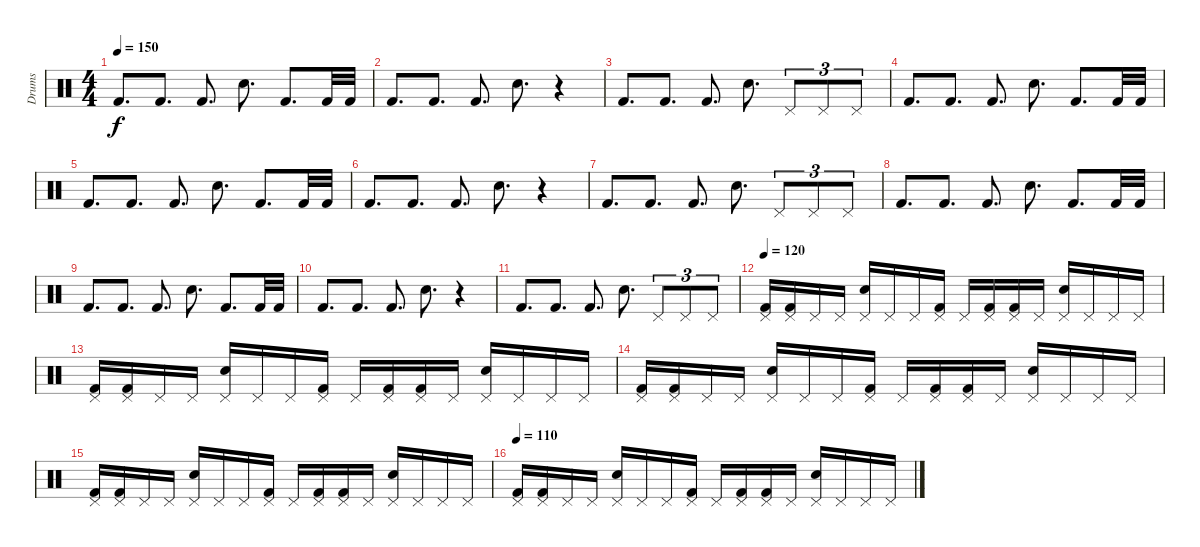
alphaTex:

\track ("Drums" "Drums") {instrument percussion}
\staff {score}
\articulation defaults
\ts (4 4)
\tempo 150
\clef neutral
\ks c "Kick (hit) 2".8{d dy f} "Kick (hit) 2".8{d} "Kick (hit) 2".8{d} "Snare (hit) 2".8{d} "Kick (hit) 2".8{d} "Kick (hit) 2".32 "Kick (hit) 2".32
|
"Kick (hit) 2".8{d} "Kick (hit) 2".8{d} "Kick (hit) 2".8{d} "Snare (hit) 2".8{d} r.4 |
"Kick (hit) 2".8{d} "Kick (hit) 2".8{d} "Kick (hit) 2".8{d} "Snare (hit) 2".8{d} "Pedal Hi-Hat (hit)".8{tu (3 2)} "Pedal Hi-Hat (hit)".8{tu (3 2)} "Pedal Hi-Hat (hit)".8{tu (3 2)} |
"Kick (hit) 2".8{d} "Kick (hit) 2".8{d} "Kick (hit) 2".8{d} "Snare (hit) 2".8{d} "Kick (hit) 2".8{d} "Kick (hit) 2".32 "Kick (hit) 2".32 |
"Kick (hit) 2".8{d} "Kick (hit) 2".8{d} "Kick (hit) 2".8{d} "Snare (hit) 2".8{d} "Kick (hit) 2".8{d} "Kick (hit) 2".32 "Kick (hit) 2".32 |
"Kick (hit) 2".8{d} "Kick (hit) 2".8{d} "Kick (hit) 2".8{d} "Snare (hit) 2".8{d} r.4 |
"Kick (hit) 2".8{d} "Kick (hit) 2".8{d} "Kick (hit) 2".8{d} "Snare (hit) 2".8{d} "Pedal Hi-Hat (hit)".8{tu (3 2)} "Pedal Hi-Hat (hit)".8{tu (3 2)} "Pedal Hi-Hat (hit)".8{tu (3 2)} |
"Kick (hit) 2".8{d} "Kick (hit) 2".8{d} "Kick (hit) 2".8{d} "Snare (hit) 2".8{d} "Kick (hit) 2".8{d} "Kick (hit) 2".32 "Kick (hit) 2".32 |
"Kick (hit) 2".8{d} "Kick (hit) 2".8{d} "Kick (hit) 2".8{d} "Snare (hit) 2".8{d} "Kick (hit) 2".8{d} "Kick (hit) 2".32 "Kick (hit) 2".32 |
"Kick (hit) 2".8{d} "Kick (hit) 2".8{d} "Kick (hit) 2".8{d} "Snare (hit) 2".8{d} r.4 |
"Kick (hit) 2".8{d} "Kick (hit) 2".8{d} "Kick (hit) 2".8{d} "Snare (hit) 2".8{d} "Pedal Hi-Hat (hit)".8{tu (3 2)} "Pedal Hi-Hat (hit)".8{tu (3 2)} "Pedal Hi-Hat (hit)".8{tu (3 2)} |
\tempo 120
("Pedal Hi-Hat (hit)" "Kick (hit) 2").16 ("Pedal Hi-Hat (hit)" "Kick (hit) 2").16 "Pedal Hi-Hat (hit)".16 "Pedal Hi-Hat (hit)".16 ("Pedal Hi-Hat (hit)" "Snare (hit) 2").16 "Pedal Hi-Hat (hit)".16 "Pedal Hi-Hat (hit)".16 ("Pedal Hi-Hat (hit)" "Kick (hit) 2").16 "Pedal Hi-Hat (hit)".16 ("Pedal Hi-Hat (hit)" "Kick (hit) 2").16 ("Pedal Hi-Hat (hit)" "Kick (hit) 2").16 "Pedal Hi-Hat (hit)".16 ("Pedal Hi-Hat (hit)" "Snare (hit) 2").16 "Pedal Hi-Hat (hit)".16 "Pedal Hi-Hat (hit)".16 "Pedal Hi-Hat (hit)".16 |
("Pedal Hi-Hat (hit)" "Kick (hit) 2").16 ("Pedal Hi-Hat (hit)" "Kick (hit) 2").16 "Pedal Hi-Hat (hit)".16 "Pedal Hi-Hat (hit)".16 ("Pedal Hi-Hat (hit)" "Snare (hit) 2").16 "Pedal Hi-Hat (hit)".16 "Pedal Hi-Hat (hit)".16 ("Pedal Hi-Hat (hit)" "Kick (hit) 2").16 "Pedal Hi-Hat (hit)".16 ("Pedal Hi-Hat (hit)" "Kick (hit) 2").16 ("Pedal Hi-Hat (hit)" "Kick (hit) 2").16 "Pedal Hi-Hat (hit)".16 ("Pedal Hi-Hat (hit)" "Snare (hit) 2").16 "Pedal Hi-Hat (hit)".16 "Pedal Hi-Hat (hit)".16 "Pedal Hi-Hat (hit)".16 |
("Pedal Hi-Hat (hit)" "Kick (hit) 2").16 ("Pedal Hi-Hat (hit)" "Kick (hit) 2").16 "Pedal Hi-Hat (hit)".16 "Pedal Hi-Hat (hit)".16 ("Pedal Hi-Hat (hit)" "Snare (hit) 2").16 "Pedal Hi-Hat (hit)".16 "Pedal Hi-Hat (hit)".16 ("Pedal Hi-Hat (hit)" "Kick (hit) 2").16 "Pedal Hi-Hat (hit)".16 ("Pedal Hi-Hat (hit)" "Kick (hit) 2").16 ("Pedal Hi-Hat (hit)" "Kick (hit) 2").16 "Pedal Hi-Hat (hit)".16 ("Pedal Hi-Hat (hit)" "Snare (hit) 2").16 "Pedal Hi-Hat (hit)".16 "Pedal Hi-Hat (hit)".16 "Pedal Hi-Hat (hit)".16 |
("Pedal Hi-Hat (hit)" "Kick (hit) 2").16 ("Pedal Hi-Hat (hit)" "Kick (hit) 2").16 "Pedal Hi-Hat (hit)".16 "Pedal Hi-Hat (hit)".16 ("Pedal Hi-Hat (hit)" "Snare (hit) 2").16 "Pedal Hi-Hat (hit)".16 "Pedal Hi-Hat (hit)".16 ("Pedal Hi-Hat (hit)" "Kick (hit) 2").16 "Pedal Hi-Hat (hit)".16 ("Pedal Hi-Hat (hit)" "Kick (hit) 2").16 ("Pedal Hi-Hat (hit)" "Kick (hit) 2").16 "Pedal Hi-Hat (hit)".16 ("Pedal Hi-Hat (hit)" "Snare (hit) 2").16 "Pedal Hi-Hat (hit)".16 "Pedal Hi-Hat (hit)".16 "Pedal Hi-Hat (hit)".16 |
\tempo 110
("Pedal Hi-Hat (hit)" "Kick (hit) 2").16 ("Pedal Hi-Hat (hit)" "Kick (hit) 2").16 "Pedal Hi-Hat (hit)".16 "Pedal Hi-Hat (hit)".16 ("Pedal Hi-Hat (hit)" "Snare (hit) 2").16 "Pedal Hi-Hat (hit)".16 "Pedal Hi-Hat (hit)".16 ("Pedal Hi-Hat (hit)" "Kick (hit) 2").16 "Pedal Hi-Hat (hit)".16 ("Pedal Hi-Hat (hit)" "Kick (hit) 2").16 ("Pedal Hi-Hat (hit)" "Kick (hit) 2").16 "Pedal Hi-Hat (hit)".16 ("Pedal Hi-Hat (hit)" "Snare (hit) 2").16 "Pedal Hi-Hat (hit)".16 "Pedal Hi-Hat (hit)".16 "Pedal Hi-Hat (hit)".16
